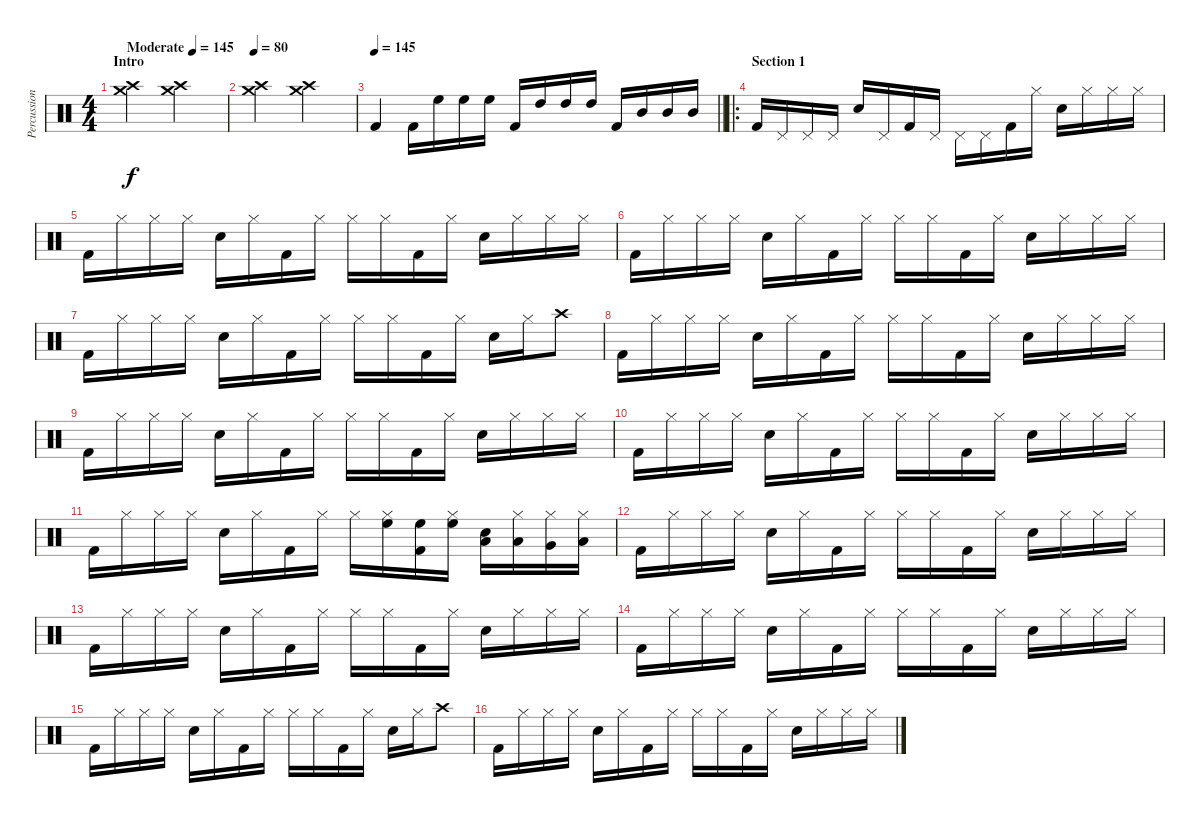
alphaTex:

\track ("Percussion" "Percussion") {instrument percussion}
\staff {score}
\articulation defaults
\ts (4 4)
\section ("" "Intro")
\tempo (145 "Moderate")
\tempo 125
\tempo (145 "Moderate")
\clef neutral
\ks c
("Crash medium (hit)" "Crash high (hit)").2{dy f} ("Crash medium (hit)" "Crash high (hit)").2 |
\tempo 80
("Crash medium (hit)" "Crash high (hit)").2 ("Crash medium (hit)" "Crash high (hit)").2 |
\tempo 145
\barLineRight lightlight "Kick (hit) 2".4 "Kick (hit) 2".16 "High Floor Tom (hit)".16 "High Floor Tom (hit)".16 "High Floor Tom (hit)".16 "Kick (hit) 2".16 "High Tom (hit)".16 "High Tom (hit)".16 "High Tom (hit)".16 "Kick (hit) 2".16 "Mid Tom (hit)".16 "Mid Tom (hit)".16 "Mid Tom (hit)".16
|
\ro
\section ("" "Section 1")
"Kick (hit) 2".16 "Pedal Hi-Hat (hit)".16 "Pedal Hi-Hat (hit)".16 "Pedal Hi-Hat (hit)".16 "Snare (hit) 2".16 "Pedal Hi-Hat (hit)".16 "Kick (hit) 2".16 "Pedal Hi-Hat (hit)".16 "Pedal Hi-Hat (hit)".16 "Pedal Hi-Hat (hit)".16 "Kick (hit) 2".16 "Hi-Hat (closed)".16 "Snare (hit) 2".16 "Hi-Hat (closed)".16 "Hi-Hat (closed)".16 "Hi-Hat (closed)".16 |
"Kick (hit) 2".16 "Hi-Hat (closed)".16 "Hi-Hat (closed)".16 "Hi-Hat (closed)".16 "Snare (hit) 2".16 "Hi-Hat (closed)".16 "Kick (hit) 2".16 "Hi-Hat (closed)".16 "Hi-Hat (closed)".16 "Hi-Hat (closed)".16 "Kick (hit) 2".16 "Hi-Hat (closed)".16 "Snare (hit) 2".16 "Hi-Hat (closed)".16 "Hi-Hat (closed)".16 "Hi-Hat (closed)".16 |
"Kick (hit) 2".16 "Hi-Hat (closed)".16 "Hi-Hat (closed)".16 "Hi-Hat (closed)".16 "Snare (hit) 2".16 "Hi-Hat (closed)".16 "Kick (hit) 2".16 "Hi-Hat (closed)".16 "Hi-Hat (closed)".16 "Hi-Hat (closed)".16 "Kick (hit) 2".16 "Hi-Hat (closed)".16 "Snare (hit) 2".16 "Hi-Hat (closed)".16 "Hi-Hat (closed)".16 "Hi-Hat (closed)".16 |
"Kick (hit) 2".16 "Hi-Hat (closed)".16 "Hi-Hat (closed)".16 "Hi-Hat (closed)".16 "Snare (hit) 2".16 "Hi-Hat (closed)".16 "Kick (hit) 2".16 "Hi-Hat (closed)".16 "Hi-Hat (closed)".16 "Hi-Hat (closed)".16 "Kick (hit) 2".16 "Hi-Hat (closed)".16 "Snare (hit) 2".16 "Hi-Hat (closed)".16 "Crash high (hit)".8 |
"Kick (hit) 2".16 "Hi-Hat (closed)".16 "Hi-Hat (closed)".16 "Hi-Hat (closed)".16 "Snare (hit) 2".16 "Hi-Hat (closed)".16 "Kick (hit) 2".16 "Hi-Hat (closed)".16 "Hi-Hat (closed)".16 "Hi-Hat (closed)".16 "Kick (hit) 2".16 "Hi-Hat (closed)".16 "Snare (hit) 2".16 "Hi-Hat (closed)".16 "Hi-Hat (closed)".16 "Hi-Hat (closed)".16 |
"Kick (hit) 2".16 "Hi-Hat (closed)".16 "Hi-Hat (closed)".16 "Hi-Hat (closed)".16 "Snare (hit) 2".16 "Hi-Hat (closed)".16 "Kick (hit) 2".16 "Hi-Hat (closed)".16 "Hi-Hat (closed)".16 "Hi-Hat (closed)".16 "Kick (hit) 2".16 "Hi-Hat (closed)".16 "Snare (hit) 2".16 "Hi-Hat (closed)".16 "Hi-Hat (closed)".16 "Hi-Hat (closed)".16 |
"Kick (hit) 2".16 "Hi-Hat (closed)".16 "Hi-Hat (closed)".16 "Hi-Hat (closed)".16 "Snare (hit) 2".16 "Hi-Hat (closed)".16 "Kick (hit) 2".16 "Hi-Hat (closed)".16 "Hi-Hat (closed)".16 "Hi-Hat (closed)".16 "Kick (hit) 2".16 "Hi-Hat (closed)".16 "Snare (hit) 2".16 "Hi-Hat (closed)".16 "Hi-Hat (closed)".16 "Hi-Hat (closed)".16 |
"Kick (hit) 2".16 "Hi-Hat (closed)".16 "Hi-Hat (closed)".16 "Hi-Hat (closed)".16 "Snare (hit) 2".16 "Hi-Hat (closed)".16 "Kick (hit) 2".16 "Hi-Hat (closed)".16 "Hi-Hat (closed)".16 ("High Floor Tom (hit)" "Hi-Hat (closed)").16 ("High Floor Tom (hit)" "Kick (hit) 2").16 ("High Floor Tom (hit)" "Hi-Hat (closed)").16 ("Low Tom (hit)" "Snare (hit) 2").16 ("Low Tom (hit)" "Hi-Hat (closed)").16 ("Very Low Tom (hit)" "Hi-Hat (closed)").16 ("Low Floor Tom (hit)" "Hi-Hat (closed)").16 |
"Kick (hit) 2".16 "Hi-Hat (closed)".16 "Hi-Hat (closed)".16 "Hi-Hat (closed)".16 "Snare (hit) 2".16 "Hi-Hat (closed)".16 "Kick (hit) 2".16 "Hi-Hat (closed)".16 "Hi-Hat (closed)".16 "Hi-Hat (closed)".16 "Kick (hit) 2".16 "Hi-Hat (closed)".16 "Snare (hit) 2".16 "Hi-Hat (closed)".16 "Hi-Hat (closed)".16 "Hi-Hat (closed)".16 |
"Kick (hit) 2".16 "Hi-Hat (closed)".16 "Hi-Hat (closed)".16 "Hi-Hat (closed)".16 "Snare (hit) 2".16 "Hi-Hat (closed)".16 "Kick (hit) 2".16 "Hi-Hat (closed)".16 "Hi-Hat (closed)".16 "Hi-Hat (closed)".16 "Kick (hit) 2".16 "Hi-Hat (closed)".16 "Snare (hit) 2".16 "Hi-Hat (closed)".16 "Hi-Hat (closed)".16 "Hi-Hat (closed)".16 |
"Kick (hit) 2".16 "Hi-Hat (closed)".16 "Hi-Hat (closed)".16 "Hi-Hat (closed)".16 "Snare (hit) 2".16 "Hi-Hat (closed)".16 "Kick (hit) 2".16 "Hi-Hat (closed)".16 "Hi-Hat (closed)".16 "Hi-Hat (closed)".16 "Kick (hit) 2".16 "Hi-Hat (closed)".16 "Snare (hit) 2".16 "Hi-Hat (closed)".16 "Hi-Hat (closed)".16 "Hi-Hat (closed)".16 |
"Kick (hit) 2".16 "Hi-Hat (closed)".16 "Hi-Hat (closed)".16 "Hi-Hat (closed)".16 "Snare (hit) 2".16 "Hi-Hat (closed)".16 "Kick (hit) 2".16 "Hi-Hat (closed)".16 "Hi-Hat (closed)".16 "Hi-Hat (closed)".16 "Kick (hit) 2".16 "Hi-Hat (closed)".16 "Snare (hit) 2".16 "Hi-Hat (closed)".16 "Crash high (hit)".8 |
"Kick (hit) 2".16 "Hi-Hat (closed)".16 "Hi-Hat (closed)".16 "Hi-Hat (closed)".16 "Snare (hit) 2".16 "Hi-Hat (closed)".16 "Kick (hit) 2".16 "Hi-Hat (closed)".16 "Hi-Hat (closed)".16 "Hi-Hat (closed)".16 "Kick (hit) 2".16 "Hi-Hat (closed)".16 "Snare (hit) 2".16 "Hi-Hat (closed)".16 "Hi-Hat (closed)".16 "Hi-Hat (closed)".16
